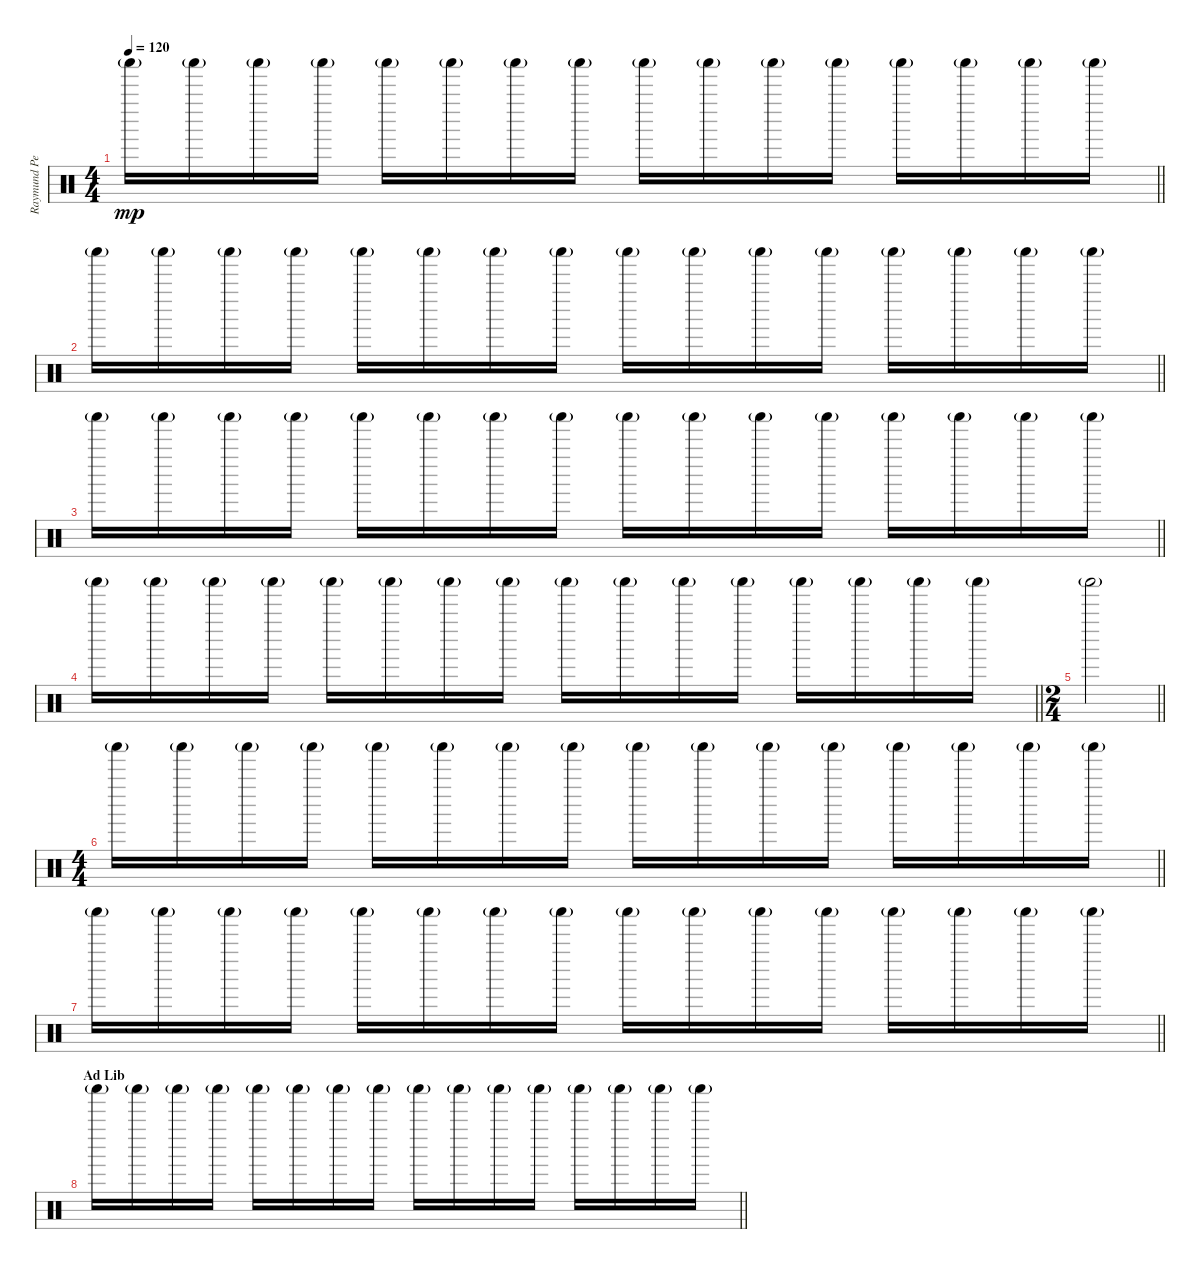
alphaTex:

\track ("Raymund Percussion" "Raymund Pe") {instrument percussion}
\staff {score}
\articulation defaults
\ts (4 4)
\tempo 120
\clef neutral
\barLineRight lightlight
\ks c "Shaker (hit)"{g}.16{dy mp} "Shaker (hit)"{g}.16 "Shaker (hit)"{g}.16 "Shaker (hit)"{g}.16 "Shaker (hit)"{g}.16 "Shaker (hit)"{g}.16 "Shaker (hit)"{g}.16 "Shaker (hit)"{g}.16 "Shaker (hit)"{g}.16 "Shaker (hit)"{g}.16 "Shaker (hit)"{g}.16 "Shaker (hit)"{g}.16 "Shaker (hit)"{g}.16 "Shaker (hit)"{g}.16 "Shaker (hit)"{g}.16 "Shaker (hit)"{g}.16
|
\barLineRight lightlight "Shaker (hit)"{g}.16 "Shaker (hit)"{g}.16 "Shaker (hit)"{g}.16 "Shaker (hit)"{g}.16 "Shaker (hit)"{g}.16 "Shaker (hit)"{g}.16 "Shaker (hit)"{g}.16 "Shaker (hit)"{g}.16 "Shaker (hit)"{g}.16 "Shaker (hit)"{g}.16 "Shaker (hit)"{g}.16 "Shaker (hit)"{g}.16 "Shaker (hit)"{g}.16 "Shaker (hit)"{g}.16 "Shaker (hit)"{g}.16 "Shaker (hit)"{g}.16
|
\barLineRight lightlight "Shaker (hit)"{g}.16 "Shaker (hit)"{g}.16 "Shaker (hit)"{g}.16 "Shaker (hit)"{g}.16 "Shaker (hit)"{g}.16 "Shaker (hit)"{g}.16 "Shaker (hit)"{g}.16 "Shaker (hit)"{g}.16 "Shaker (hit)"{g}.16 "Shaker (hit)"{g}.16 "Shaker (hit)"{g}.16 "Shaker (hit)"{g}.16 "Shaker (hit)"{g}.16 "Shaker (hit)"{g}.16 "Shaker (hit)"{g}.16 "Shaker (hit)"{g}.16
|
\barLineRight lightlight "Shaker (hit)"{g}.16 "Shaker (hit)"{g}.16 "Shaker (hit)"{g}.16 "Shaker (hit)"{g}.16 "Shaker (hit)"{g}.16 "Shaker (hit)"{g}.16 "Shaker (hit)"{g}.16 "Shaker (hit)"{g}.16 "Shaker (hit)"{g}.16 "Shaker (hit)"{g}.16 "Shaker (hit)"{g}.16 "Shaker (hit)"{g}.16 "Shaker (hit)"{g}.16 "Shaker (hit)"{g}.16 "Shaker (hit)"{g}.16 "Shaker (hit)"{g}.16
|
\ts (2 4)
\barLineRight lightlight "Shaker (hit)"{g}.2
|
\ts (4 4)
\barLineRight lightlight "Shaker (hit)"{g}.16 "Shaker (hit)"{g}.16 "Shaker (hit)"{g}.16 "Shaker (hit)"{g}.16 "Shaker (hit)"{g}.16 "Shaker (hit)"{g}.16 "Shaker (hit)"{g}.16 "Shaker (hit)"{g}.16 "Shaker (hit)"{g}.16 "Shaker (hit)"{g}.16 "Shaker (hit)"{g}.16 "Shaker (hit)"{g}.16 "Shaker (hit)"{g}.16 "Shaker (hit)"{g}.16 "Shaker (hit)"{g}.16 "Shaker (hit)"{g}.16
|
\barLineRight lightlight "Shaker (hit)"{g}.16 "Shaker (hit)"{g}.16 "Shaker (hit)"{g}.16 "Shaker (hit)"{g}.16 "Shaker (hit)"{g}.16 "Shaker (hit)"{g}.16 "Shaker (hit)"{g}.16 "Shaker (hit)"{g}.16 "Shaker (hit)"{g}.16 "Shaker (hit)"{g}.16 "Shaker (hit)"{g}.16 "Shaker (hit)"{g}.16 "Shaker (hit)"{g}.16 "Shaker (hit)"{g}.16 "Shaker (hit)"{g}.16 "Shaker (hit)"{g}.16
|
\section ("" "Ad Lib")
\barLineRight lightlight "Shaker (hit)"{g}.16 "Shaker (hit)"{g}.16 "Shaker (hit)"{g}.16 "Shaker (hit)"{g}.16 "Shaker (hit)"{g}.16 "Shaker (hit)"{g}.16 "Shaker (hit)"{g}.16 "Shaker (hit)"{g}.16 "Shaker (hit)"{g}.16 "Shaker (hit)"{g}.16 "Shaker (hit)"{g}.16 "Shaker (hit)"{g}.16 "Shaker (hit)"{g}.16 "Shaker (hit)"{g}.16 "Shaker (hit)"{g}.16 "Shaker (hit)"{g}.16
